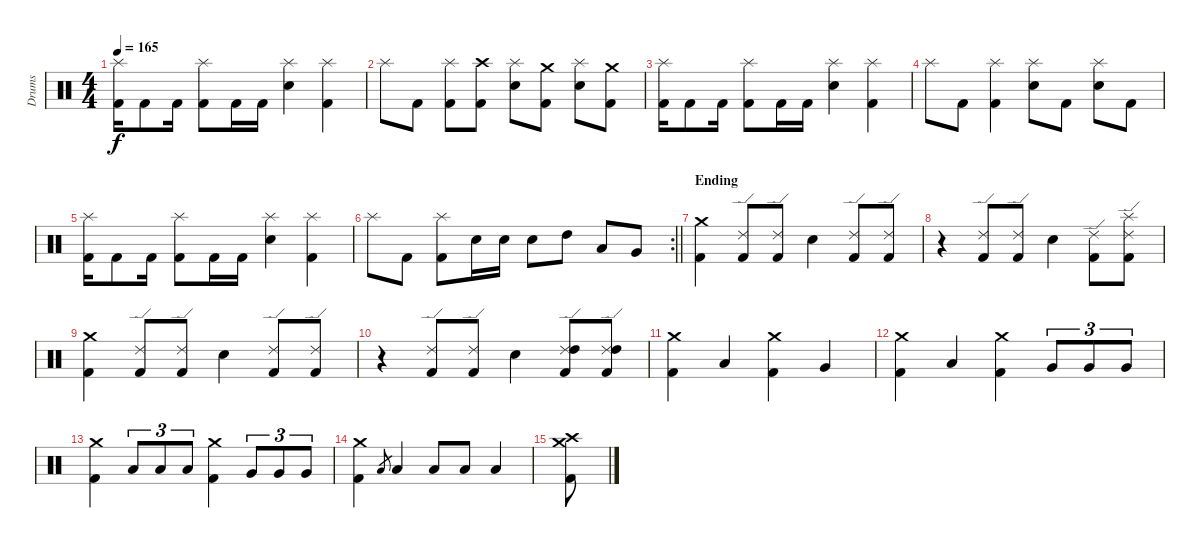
\track ("Drums" "Drums") {instrument percussion}
\staff {score}
\articulation defaults
\ts (4 4)
\tempo 165
\clef neutral
\ks c
("Splash (hit)" "Kick (hit) 2").16{dy f} "Kick (hit) 2".8 "Kick (hit) 2".16 ("Splash (hit)" "Kick (hit) 2").8 "Kick (hit) 2".16 "Kick (hit) 2".16 ("Splash (hit)" "Snare (hit) 2").4 ("Splash (hit)" "Kick (hit) 2").4 |
"Splash (hit)".8 "Kick (hit) 2".8 ("Splash (hit)" "Kick (hit) 2").8 ("Crash high (hit)" "Kick (hit) 2").8 ("Splash (hit)" "Snare (hit) 2").8 ("Crash medium (hit)" "Kick (hit) 2").8 ("Splash (hit)" "Snare (hit) 2").8 ("Crash medium (hit)" "Kick (hit) 2").8 |
("Splash (hit)" "Kick (hit) 2").16 "Kick (hit) 2".8 "Kick (hit) 2".16 ("Splash (hit)" "Kick (hit) 2").8 "Kick (hit) 2".16 "Kick (hit) 2".16 ("Splash (hit)" "Snare (hit) 2").4 ("Splash (hit)" "Kick (hit) 2").4 |
"Splash (hit)".8 "Kick (hit) 2".8 ("Splash (hit)" "Kick (hit) 2").4 ("Splash (hit)" "Snare (hit) 2").8 "Kick (hit) 2".8 ("Splash (hit)" "Snare (hit) 2").8 "Kick (hit) 2".8 |
("Splash (hit)" "Kick (hit) 2").16 "Kick (hit) 2".8 "Kick (hit) 2".16 ("Splash (hit)" "Kick (hit) 2").8 "Kick (hit) 2".16 "Kick (hit) 2".16 ("Splash (hit)" "Snare (hit) 2").4 ("Splash (hit)" "Kick (hit) 2").4 |
\rc 2
\barLineRight lightlight "Splash (hit)".8 "Kick (hit) 2".8
("Splash (hit)" "Kick (hit) 2").8 "Snare (hit) 2".16 "Snare (hit) 2".16 "Snare (hit) 2".8 "High Tom (hit)".8 "Low Tom (hit)".8 "Very Low Tom (hit)".8 |
\section ("" "Ending")
("Crash medium (hit)" "Kick (hit) 2").4 ("Ride (edge) 2" "Kick (hit) 2").8 ("Ride (edge) 2" "Kick (hit) 2").8 "Snare (hit) 2".4 ("Ride (edge) 2" "Kick (hit) 2").8 ("Ride (edge) 2" "Kick (hit) 2").8 |
r.4 ("Ride (edge) 2" "Kick (hit) 2").8 ("Ride (edge) 2" "Kick (hit) 2").8 "Snare (hit) 2".4 ("Ride (edge) 2" "Kick (hit) 2").8 ("Splash (hit)" "Ride (edge) 2" "Kick (hit) 2").8 |
("Crash medium (hit)" "Kick (hit) 2").4 ("Ride (edge) 2" "Kick (hit) 2").8 ("Ride (edge) 2" "Kick (hit) 2").8 "Snare (hit) 2".4 ("Ride (edge) 2" "Kick (hit) 2").8 ("Ride (edge) 2" "Kick (hit) 2").8 |
r.4 ("Ride (edge) 2" "Kick (hit) 2").8 ("Ride (edge) 2" "Kick (hit) 2").8 "Snare (hit) 2".4 ("Ride (edge) 2" "High Tom (hit)" "Kick (hit) 2").8 ("Ride (edge) 2" "High Tom (hit)" "Kick (hit) 2").8 |
("Crash medium (hit)" "Kick (hit) 2").4 "Low Tom (hit)".4 ("Crash medium (hit)" "Kick (hit) 2").4 "Very Low Tom (hit)".4 |
("Crash medium (hit)" "Kick (hit) 2").4 "Low Tom (hit)".4 ("Crash medium (hit)" "Kick (hit) 2").4 "Very Low Tom (hit)".8{tu (3 2)} "Very Low Tom (hit)".8{tu (3 2)} "Very Low Tom (hit)".8{tu (3 2)} |
("Crash medium (hit)" "Kick (hit) 2").4 "Low Tom (hit)".8{tu (3 2)} "Low Tom (hit)".8{tu (3 2)} "Low Tom (hit)".8{tu (3 2)} ("Crash medium (hit)" "Kick (hit) 2").4 "Very Low Tom (hit)".8{tu (3 2)} "Very Low Tom (hit)".8{tu (3 2)} "Very Low Tom (hit)".8{tu (3 2)} |
("Crash medium (hit)" "Kick (hit) 2").4 "Low Floor Tom (hit)".8{gr} "Low Floor Tom (hit)".4 "Low Floor Tom (hit)".8 "Low Floor Tom (hit)".8 "Low Floor Tom (hit)".4 |
("Crash medium (hit)" "Crash high (hit)" "Kick (hit) 2").8
